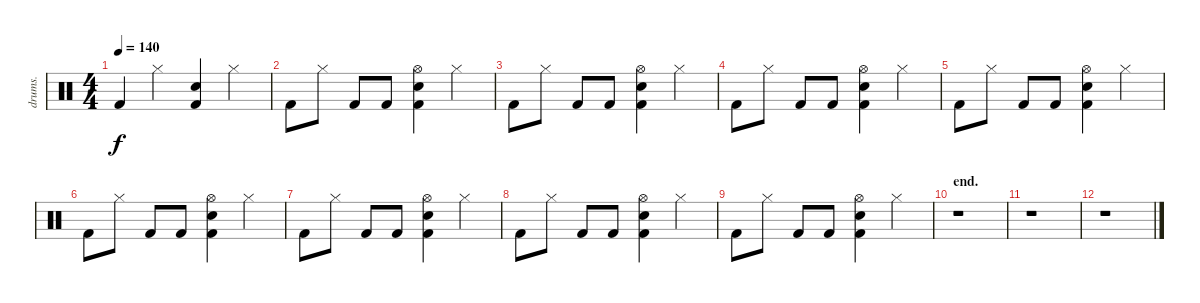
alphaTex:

\track ("drums." "drums.") {instrument percussion}
\staff {score}
\articulation defaults
\ts (4 4)
\tempo 140
\clef neutral
\ks c "Kick (hit) 2".4{dy f} "Hi-Hat (closed)".4
("Electric Snare (hit)" "Kick (hit) 2").4 "Hi-Hat (closed)".4 |
"Kick (hit) 2".8 "Hi-Hat (closed)".8 "Kick (hit) 2".8 "Kick (hit) 2".8 ("Hi-Hat (open)" "Electric Snare (hit)" "Kick (hit) 2").4 "Hi-Hat (closed)".4 |
"Kick (hit) 2".8 "Hi-Hat (closed)".8 "Kick (hit) 2".8 "Kick (hit) 2".8 ("Hi-Hat (open)" "Electric Snare (hit)" "Kick (hit) 2").4 "Hi-Hat (closed)".4 |
"Kick (hit) 2".8 "Hi-Hat (closed)".8 "Kick (hit) 2".8 "Kick (hit) 2".8 ("Hi-Hat (open)" "Electric Snare (hit)" "Kick (hit) 2").4 "Hi-Hat (closed)".4 |
"Kick (hit) 2".8 "Hi-Hat (closed)".8 "Kick (hit) 2".8 "Kick (hit) 2".8 ("Hi-Hat (open)" "Electric Snare (hit)" "Kick (hit) 2").4 "Hi-Hat (closed)".4 |
"Kick (hit) 2".8 "Hi-Hat (closed)".8 "Kick (hit) 2".8 "Kick (hit) 2".8 ("Hi-Hat (open)" "Electric Snare (hit)" "Kick (hit) 2").4 "Hi-Hat (closed)".4 |
"Kick (hit) 2".8 "Hi-Hat (closed)".8 "Kick (hit) 2".8 "Kick (hit) 2".8 ("Hi-Hat (open)" "Electric Snare (hit)" "Kick (hit) 2").4 "Hi-Hat (closed)".4 |
"Kick (hit) 2".8 "Hi-Hat (closed)".8 "Kick (hit) 2".8 "Kick (hit) 2".8 ("Hi-Hat (open)" "Electric Snare (hit)" "Kick (hit) 2").4 "Hi-Hat (closed)".4 |
"Kick (hit) 2".8 "Hi-Hat (closed)".8 "Kick (hit) 2".8 "Kick (hit) 2".8 ("Hi-Hat (open)" "Electric Snare (hit)" "Kick (hit) 2").4 "Hi-Hat (closed)".4 |
\section ("" "end.")
r.1 |
r.1 |
r.1
